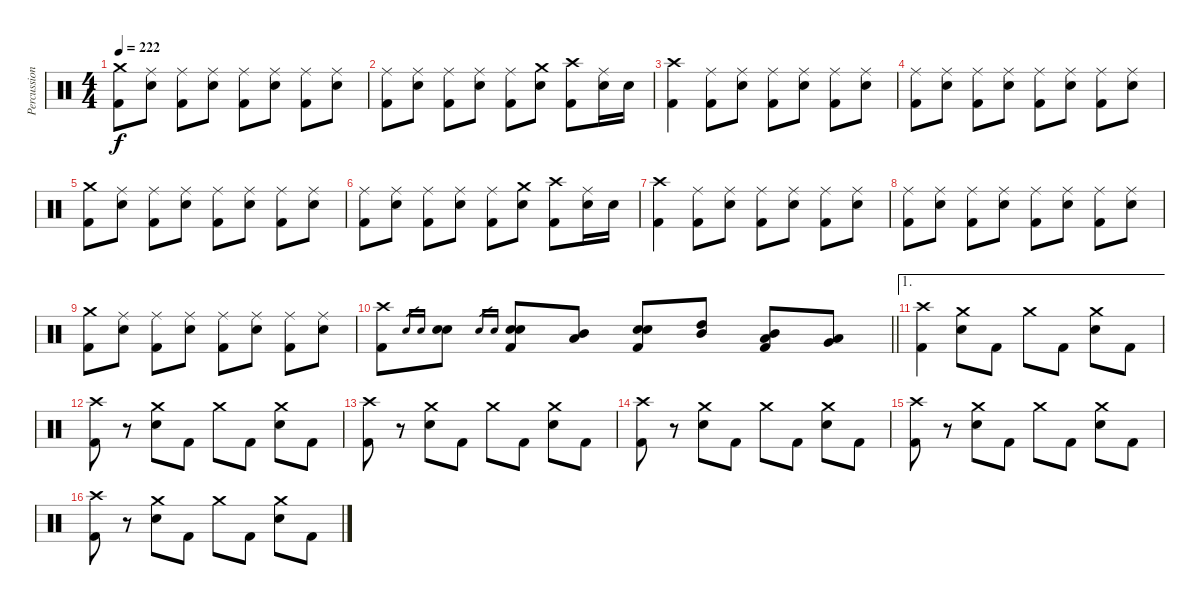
\track ("Percussions" "Percussion") {instrument percussion}
\staff {score}
\articulation defaults
\ts (4 4)
\tempo 222
\clef neutral
\ks c
("Crash medium (hit)" "Kick (hit) 2").8{dy f} ("Ride (middle)" "Electric Snare (hit)").8 ("Ride (middle)" "Kick (hit) 2").8 ("Ride (middle)" "Electric Snare (hit)").8 ("Ride (middle)" "Kick (hit) 2").8 ("Ride (middle)" "Electric Snare (hit)").8 ("Ride (middle)" "Kick (hit) 2").8 ("Ride (middle)" "Electric Snare (hit)").8 |
("Ride (middle)" "Kick (hit) 2").8 ("Ride (middle)" "Electric Snare (hit)").8 ("Ride (middle)" "Kick (hit) 2").8 ("Ride (middle)" "Electric Snare (hit)").8 ("Ride (middle)" "Kick (hit) 2").8 ("Crash medium (hit)" "Electric Snare (hit)").8 ("Crash high (hit)" "Kick (hit) 2").8 ("Ride (middle)" "Electric Snare (hit)").16 "Electric Snare (hit)".16 |
("Crash high (hit)" "Kick (hit) 2").4 ("Ride (middle)" "Kick (hit) 2").8 ("Ride (middle)" "Electric Snare (hit)").8 ("Ride (middle)" "Kick (hit) 2").8 ("Ride (middle)" "Electric Snare (hit)").8 ("Ride (middle)" "Kick (hit) 2").8 ("Ride (middle)" "Electric Snare (hit)").8 |
("Ride (middle)" "Kick (hit) 2").8 ("Ride (middle)" "Electric Snare (hit)").8 ("Ride (middle)" "Kick (hit) 2").8 ("Ride (middle)" "Electric Snare (hit)").8 ("Ride (middle)" "Kick (hit) 2").8 ("Ride (middle)" "Electric Snare (hit)").8 ("Ride (middle)" "Kick (hit) 2").8 ("Ride (middle)" "Electric Snare (hit)").8 |
("Crash medium (hit)" "Kick (hit) 2").8 ("Ride (middle)" "Electric Snare (hit)").8 ("Ride (middle)" "Kick (hit) 2").8 ("Ride (middle)" "Electric Snare (hit)").8 ("Ride (middle)" "Kick (hit) 2").8 ("Ride (middle)" "Electric Snare (hit)").8 ("Ride (middle)" "Kick (hit) 2").8 ("Ride (middle)" "Electric Snare (hit)").8 |
("Ride (middle)" "Kick (hit) 2").8 ("Ride (middle)" "Electric Snare (hit)").8 ("Ride (middle)" "Kick (hit) 2").8 ("Ride (middle)" "Electric Snare (hit)").8 ("Ride (middle)" "Kick (hit) 2").8 ("Crash medium (hit)" "Electric Snare (hit)").8 ("Crash high (hit)" "Kick (hit) 2").8 ("Ride (middle)" "Electric Snare (hit)").16 "Electric Snare (hit)".16 |
("Crash high (hit)" "Kick (hit) 2").4 ("Ride (middle)" "Kick (hit) 2").8 ("Ride (middle)" "Electric Snare (hit)").8 ("Ride (middle)" "Kick (hit) 2").8 ("Ride (middle)" "Electric Snare (hit)").8 ("Ride (middle)" "Kick (hit) 2").8 ("Ride (middle)" "Electric Snare (hit)").8 |
("Ride (middle)" "Kick (hit) 2").8 ("Ride (middle)" "Electric Snare (hit)").8 ("Ride (middle)" "Kick (hit) 2").8 ("Ride (middle)" "Electric Snare (hit)").8 ("Ride (middle)" "Kick (hit) 2").8 ("Ride (middle)" "Electric Snare (hit)").8 ("Ride (middle)" "Kick (hit) 2").8 ("Ride (middle)" "Electric Snare (hit)").8 |
("Crash medium (hit)" "Kick (hit) 2").8 ("Ride (middle)" "Electric Snare (hit)").8 ("Ride (middle)" "Kick (hit) 2").8 ("Ride (middle)" "Electric Snare (hit)").8 ("Ride (middle)" "Kick (hit) 2").8 ("Ride (middle)" "Electric Snare (hit)").8 ("Ride (middle)" "Kick (hit) 2").8 ("Ride (middle)" "Electric Snare (hit)").8 |
\barLineRight lightlight
("Crash high (hit)" "Kick (hit) 2").8 "Electric Snare (hit)".16{gr} "Electric Snare (hit)".16{gr} ("Electric Snare (hit)" "Electric Snare (hit)").8 "Electric Snare (hit)".16{gr} "Electric Snare (hit)".16{gr} ("Electric Snare (hit)" "Electric Snare (hit)" "Kick (hit) 2").8 ("Mid Tom (hit)" "Low Tom (hit)").8 ("Electric Snare (hit)" "Electric Snare (hit)" "Kick (hit) 2").8 ("High Tom (hit)" "Mid Tom (hit)").8 ("Mid Tom (hit)" "Low Tom (hit)" "Kick (hit) 2").8 ("Low Tom (hit)" "Very Low Tom (hit)").8 |
\ae 1
\section ("" "")
("Crash high (hit)" "Kick (hit) 2").4 ("Crash medium (hit)" "Electric Snare (hit)").8 "Kick (hit) 2".8 "Crash medium (hit)".8 "Kick (hit) 2".8 ("Crash medium (hit)" "Electric Snare (hit)").8 "Kick (hit) 2".8 |
("Crash high (hit)" "Kick (hit) 2").8 r.8 ("Crash medium (hit)" "Electric Snare (hit)").8 "Kick (hit) 2".8 "Crash medium (hit)".8 "Kick (hit) 2".8 ("Crash medium (hit)" "Electric Snare (hit)").8 "Kick (hit) 2".8 |
("Crash high (hit)" "Kick (hit) 2").8 r.8 ("Crash medium (hit)" "Electric Snare (hit)").8 "Kick (hit) 2".8 "Crash medium (hit)".8 "Kick (hit) 2".8 ("Crash medium (hit)" "Electric Snare (hit)").8 "Kick (hit) 2".8 |
("Crash high (hit)" "Kick (hit) 2").8 r.8 ("Crash medium (hit)" "Electric Snare (hit)").8 "Kick (hit) 2".8 "Crash medium (hit)".8 "Kick (hit) 2".8 ("Crash medium (hit)" "Electric Snare (hit)").8 "Kick (hit) 2".8 |
("Crash high (hit)" "Kick (hit) 2").8 r.8 ("Crash medium (hit)" "Electric Snare (hit)").8 "Kick (hit) 2".8 "Crash medium (hit)".8 "Kick (hit) 2".8 ("Crash medium (hit)" "Electric Snare (hit)").8 "Kick (hit) 2".8 |
("Crash high (hit)" "Kick (hit) 2").8 r.8 ("Crash medium (hit)" "Electric Snare (hit)").8 "Kick (hit) 2".8 "Crash medium (hit)".8 "Kick (hit) 2".8 ("Crash medium (hit)" "Electric Snare (hit)").8 "Kick (hit) 2".8
